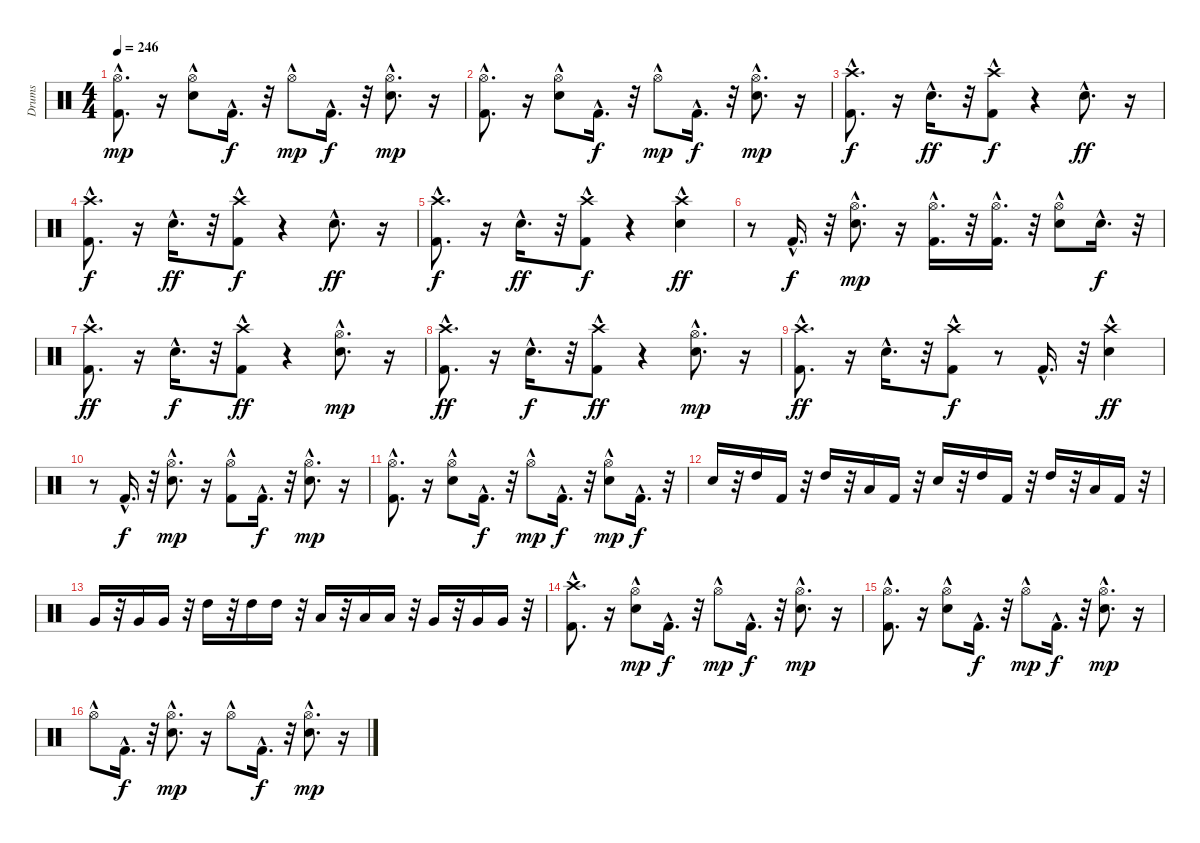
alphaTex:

\track ("Drums" "Drums") {instrument percussion}
\staff {score}
\articulation defaults
\ts (4 4)
\tempo 246
\clef neutral
\ks c
("Kick (hit) 2"{hac} "Hi-Hat (open)"{hac}).8{d dy mp} r.16 ("Electric Snare (hit)"{hac} "Hi-Hat (open)"{hac}).8 "Kick (hit) 2"{hac}.16{d dy f} r.32 "Hi-Hat (open)"{hac}.8{dy mp} "Kick (hit) 2"{hac}.16{d dy f} r.32 ("Electric Snare (hit)"{hac} "Hi-Hat (open)"{hac}).8{d dy mp} r.16 |
("Kick (hit) 2"{hac} "Hi-Hat (open)"{hac}).8{d} r.16 ("Electric Snare (hit)"{hac} "Hi-Hat (open)"{hac}).8 "Kick (hit) 2"{hac}.16{d dy f} r.32 "Hi-Hat (open)"{hac}.8{dy mp} "Kick (hit) 2"{hac}.16{d dy f} r.32 ("Electric Snare (hit)"{hac} "Hi-Hat (open)"{hac}).8{d dy mp} r.16 |
("Kick (hit) 2"{hac} "Crash high (hit)"{hac}).8{d dy f} r.16 "Electric Snare (hit)"{hac}.16{d dy ff} r.32 ("Kick (hit) 2"{hac} "Crash high (hit)").8{dy f} r.4 "Electric Snare (hit)"{hac}.8{d dy ff} r.16 |
("Kick (hit) 2"{hac} "Crash high (hit)"{hac}).8{d dy f} r.16 "Electric Snare (hit)"{hac}.16{d dy ff} r.32 ("Kick (hit) 2"{hac} "Crash high (hit)").8{dy f} r.4 "Electric Snare (hit)"{hac}.8{d dy ff} r.16 |
("Kick (hit) 2"{hac} "Crash high (hit)"{hac}).8{d dy f} r.16 "Electric Snare (hit)"{hac}.16{d dy ff} r.32 ("Kick (hit) 2"{hac} "Crash high (hit)").8{dy f} r.4 ("Electric Snare (hit)"{hac} "Crash high (hit)").4{dy ff} |
r.8 "Kick (hit) 2"{hac}.16{d dy f} r.32 ("Electric Snare (hit)"{hac} "Hi-Hat (open)"{hac}).8{d dy mp} r.16 ("Hi-Hat (open)"{hac} "Kick (hit) 2"{hac}).16{d} r.32 ("Kick (hit) 2"{hac} "Hi-Hat (open)"{hac}).16{d} r.32 ("Hi-Hat (open)"{hac} "Electric Snare (hit)"{hac}).8 "Electric Snare (hit)"{hac}.16{d dy f} r.32 |
("Kick (hit) 2"{hac} "Crash high (hit)"{hac}).8{d dy ff} r.16 "Electric Snare (hit)"{hac}.16{d dy f} r.32 ("Kick (hit) 2"{hac} "Crash high (hit)").8{dy ff} r.4 ("Hi-Hat (open)"{hac} "Electric Snare (hit)"{hac}).8{d dy mp} r.16 |
("Kick (hit) 2"{hac} "Crash high (hit)"{hac}).8{d dy ff} r.16 "Electric Snare (hit)"{hac}.16{d dy f} r.32 ("Kick (hit) 2"{hac} "Crash high (hit)").8{dy ff} r.4 ("Hi-Hat (open)"{hac} "Electric Snare (hit)"{hac}).8{d dy mp} r.16 |
("Kick (hit) 2"{hac} "Crash high (hit)"{hac}).8{d dy ff} r.16 "Electric Snare (hit)"{hac}.16{d} r.32 ("Kick (hit) 2"{hac} "Crash high (hit)").8{dy f} r.8 "Kick (hit) 2"{hac}.16{d} r.32 ("Crash high (hit)" "Electric Snare (hit)"{hac}).4{dy ff} |
r.8 "Kick (hit) 2"{hac}.16{d dy f} r.32 ("Electric Snare (hit)"{hac} "Hi-Hat (open)"{hac}).8{d dy mp} r.16 ("Kick (hit) 2"{hac} "Hi-Hat (open)"{hac}).8 "Kick (hit) 2"{hac}.16{d dy f} r.32 ("Electric Snare (hit)"{hac} "Hi-Hat (open)"{hac}).8{d dy mp} r.16 |
("Kick (hit) 2"{hac} "Hi-Hat (open)"{hac}).8{d} r.16 ("Electric Snare (hit)"{hac} "Hi-Hat (open)"{hac}).8 "Kick (hit) 2"{hac}.16{d dy f} r.32 "Hi-Hat (open)"{hac}.8{dy mp} "Kick (hit) 2"{hac}.16{d dy f} r.32 ("Electric Snare (hit)"{hac} "Hi-Hat (open)"{hac}).8{dy mp} "Kick (hit) 2"{hac}.16{d dy f} r.32 |
"Electric Snare (hit)".16 r.32 "High Tom (hit)".16 "Kick (hit) 2".16 r.32 "High Tom (hit)".16 r.32 "Low Tom (hit)".16 "Kick (hit) 2".16 r.32 "Electric Snare (hit)".16 r.32 "High Tom (hit)".16 "Kick (hit) 2".16 r.32 "High Tom (hit)".16 r.32 "Low Tom (hit)".16 "Kick (hit) 2".16 r.32 |
"Very Low Tom (hit)".16 r.32 "Very Low Tom (hit)".16 "Very Low Tom (hit)".16 r.32 "High Tom (hit)".16 r.32 "High Tom (hit)".16 "High Tom (hit)".16 r.32 "Low Tom (hit)".16 r.32 "Low Tom (hit)".16 "Low Tom (hit)".16 r.32 "Very Low Tom (hit)".16 r.32 "Very Low Tom (hit)".16 "Very Low Tom (hit)".16 r.32 |
("Kick (hit) 2"{hac} "Crash high (hit)"{hac}).8{d} r.16 ("Electric Snare (hit)"{hac} "Hi-Hat (open)"{hac}).8{dy mp} "Kick (hit) 2"{hac}.16{d dy f} r.32 "Hi-Hat (open)"{hac}.8{dy mp} "Kick (hit) 2"{hac}.16{d dy f} r.32 ("Electric Snare (hit)"{hac} "Hi-Hat (open)"{hac}).8{d dy mp} r.16 |
("Kick (hit) 2"{hac} "Hi-Hat (open)"{hac}).8{d} r.16 ("Electric Snare (hit)"{hac} "Hi-Hat (open)"{hac}).8 "Kick (hit) 2"{hac}.16{d dy f} r.32 "Hi-Hat (open)"{hac}.8{dy mp} "Kick (hit) 2"{hac}.16{d dy f} r.32 ("Electric Snare (hit)"{hac} "Hi-Hat (open)"{hac}).8{d dy mp} r.16 |
"Hi-Hat (open)"{hac}.8 "Kick (hit) 2"{hac}.16{d dy f} r.32 ("Electric Snare (hit)"{hac} "Hi-Hat (open)"{hac}).8{d dy mp} r.16 "Hi-Hat (open)"{hac}.8 "Kick (hit) 2"{hac}.16{d dy f} r.32 ("Electric Snare (hit)"{hac} "Hi-Hat (open)"{hac}).8{d dy mp} r.16
